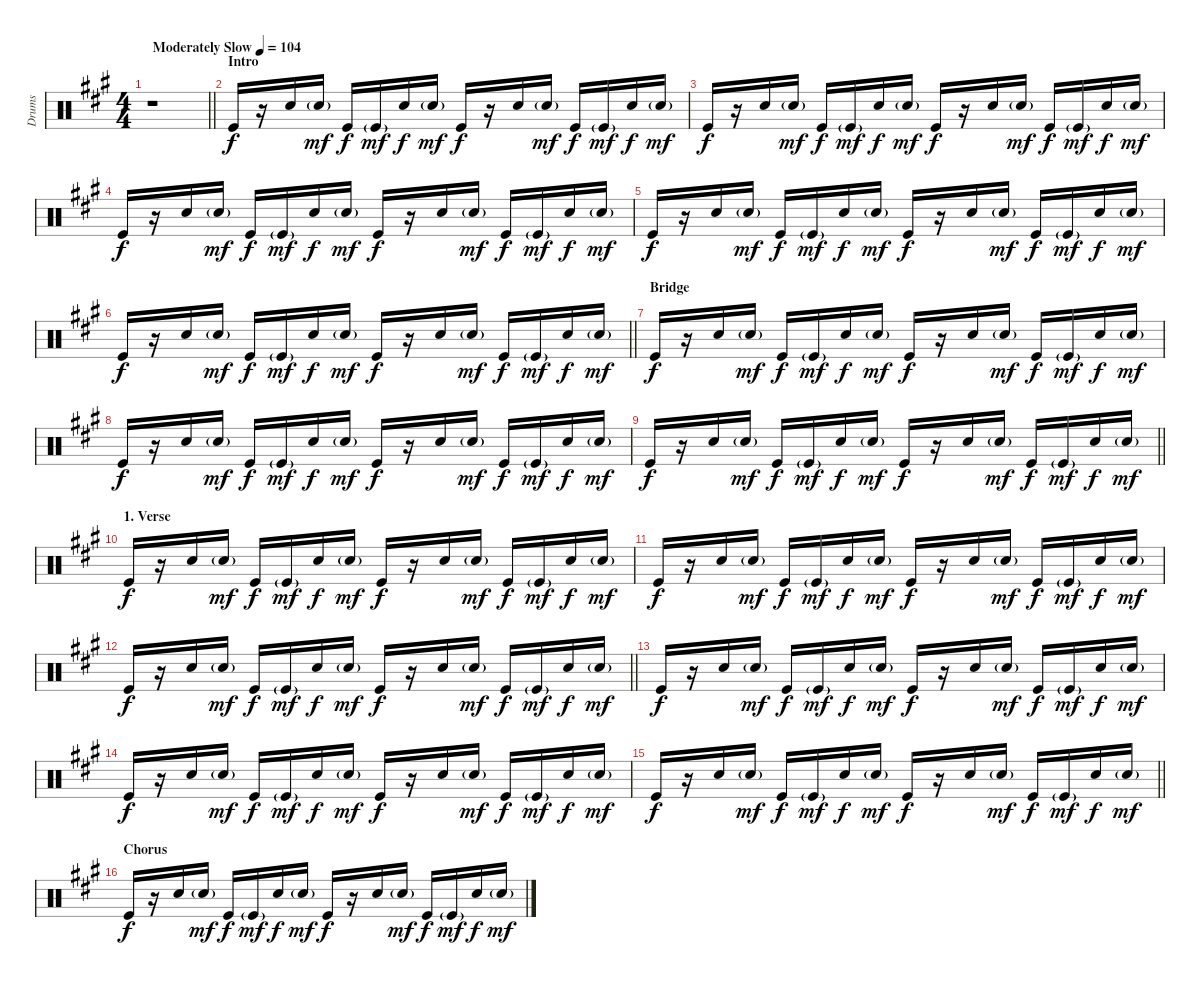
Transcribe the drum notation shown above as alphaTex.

\track ("Drums" "Drums") {mute instrument percussion}
\staff {score}
\articulation defaults
\ts (4 4)
\tempo (104 "Moderately Slow")
\clef neutral
\barLineRight lightlight
\ks a
r.1{dy f} |
\section ("" "Intro")
"Kick (hit)".16 r.16 "Snare (hit) 2".16 "Snare (hit) 2"{g}.16{dy mf} "Kick (hit)".16{dy f} "Kick (hit)"{g}.16{dy mf} "Snare (hit) 2".16{dy f} "Snare (hit) 2"{g}.16{dy mf} "Kick (hit)".16{dy f} r.16 "Snare (hit) 2".16 "Snare (hit) 2"{g}.16{dy mf} "Kick (hit)".16{dy f} "Kick (hit)"{g}.16{dy mf} "Snare (hit) 2".16{dy f} "Snare (hit) 2"{g}.16{dy mf} |
"Kick (hit)".16{dy f} r.16 "Snare (hit) 2".16 "Snare (hit) 2"{g}.16{dy mf} "Kick (hit)".16{dy f} "Kick (hit)"{g}.16{dy mf} "Snare (hit) 2".16{dy f} "Snare (hit) 2"{g}.16{dy mf} "Kick (hit)".16{dy f} r.16 "Snare (hit) 2".16 "Snare (hit) 2"{g}.16{dy mf} "Kick (hit)".16{dy f} "Kick (hit)"{g}.16{dy mf} "Snare (hit) 2".16{dy f} "Snare (hit) 2"{g}.16{dy mf} |
"Kick (hit)".16{dy f} r.16 "Snare (hit) 2".16 "Snare (hit) 2"{g}.16{dy mf} "Kick (hit)".16{dy f} "Kick (hit)"{g}.16{dy mf} "Snare (hit) 2".16{dy f} "Snare (hit) 2"{g}.16{dy mf} "Kick (hit)".16{dy f} r.16 "Snare (hit) 2".16 "Snare (hit) 2"{g}.16{dy mf} "Kick (hit)".16{dy f} "Kick (hit)"{g}.16{dy mf} "Snare (hit) 2".16{dy f} "Snare (hit) 2"{g}.16{dy mf} |
"Kick (hit)".16{dy f} r.16 "Snare (hit) 2".16 "Snare (hit) 2"{g}.16{dy mf} "Kick (hit)".16{dy f} "Kick (hit)"{g}.16{dy mf} "Snare (hit) 2".16{dy f} "Snare (hit) 2"{g}.16{dy mf} "Kick (hit)".16{dy f} r.16 "Snare (hit) 2".16 "Snare (hit) 2"{g}.16{dy mf} "Kick (hit)".16{dy f} "Kick (hit)"{g}.16{dy mf} "Snare (hit) 2".16{dy f} "Snare (hit) 2"{g}.16{dy mf} |
\barLineRight lightlight "Kick (hit)".16{dy f}
r.16 "Snare (hit) 2".16 "Snare (hit) 2"{g}.16{dy mf} "Kick (hit)".16{dy f} "Kick (hit)"{g}.16{dy mf} "Snare (hit) 2".16{dy f} "Snare (hit) 2"{g}.16{dy mf} "Kick (hit)".16{dy f} r.16 "Snare (hit) 2".16 "Snare (hit) 2"{g}.16{dy mf} "Kick (hit)".16{dy f} "Kick (hit)"{g}.16{dy mf} "Snare (hit) 2".16{dy f} "Snare (hit) 2"{g}.16{dy mf} |
\section ("" "Bridge")
"Kick (hit)".16{dy f} r.16 "Snare (hit) 2".16 "Snare (hit) 2"{g}.16{dy mf} "Kick (hit)".16{dy f} "Kick (hit)"{g}.16{dy mf} "Snare (hit) 2".16{dy f} "Snare (hit) 2"{g}.16{dy mf} "Kick (hit)".16{dy f} r.16 "Snare (hit) 2".16 "Snare (hit) 2"{g}.16{dy mf} "Kick (hit)".16{dy f} "Kick (hit)"{g}.16{dy mf} "Snare (hit) 2".16{dy f} "Snare (hit) 2"{g}.16{dy mf} |
"Kick (hit)".16{dy f} r.16 "Snare (hit) 2".16 "Snare (hit) 2"{g}.16{dy mf} "Kick (hit)".16{dy f} "Kick (hit)"{g}.16{dy mf} "Snare (hit) 2".16{dy f} "Snare (hit) 2"{g}.16{dy mf} "Kick (hit)".16{dy f} r.16 "Snare (hit) 2".16 "Snare (hit) 2"{g}.16{dy mf} "Kick (hit)".16{dy f} "Kick (hit)"{g}.16{dy mf} "Snare (hit) 2".16{dy f} "Snare (hit) 2"{g}.16{dy mf} |
\barLineRight lightlight "Kick (hit)".16{dy f}
r.16 "Snare (hit) 2".16 "Snare (hit) 2"{g}.16{dy mf} "Kick (hit)".16{dy f} "Kick (hit)"{g}.16{dy mf} "Snare (hit) 2".16{dy f} "Snare (hit) 2"{g}.16{dy mf} "Kick (hit)".16{dy f} r.16 "Snare (hit) 2".16 "Snare (hit) 2"{g}.16{dy mf} "Kick (hit)".16{dy f} "Kick (hit)"{g}.16{dy mf} "Snare (hit) 2".16{dy f} "Snare (hit) 2"{g}.16{dy mf} |
\section ("" "1. Verse")
"Kick (hit)".16{dy f} r.16 "Snare (hit) 2".16 "Snare (hit) 2"{g}.16{dy mf} "Kick (hit)".16{dy f} "Kick (hit)"{g}.16{dy mf} "Snare (hit) 2".16{dy f} "Snare (hit) 2"{g}.16{dy mf} "Kick (hit)".16{dy f} r.16 "Snare (hit) 2".16 "Snare (hit) 2"{g}.16{dy mf} "Kick (hit)".16{dy f} "Kick (hit)"{g}.16{dy mf} "Snare (hit) 2".16{dy f} "Snare (hit) 2"{g}.16{dy mf} |
"Kick (hit)".16{dy f} r.16 "Snare (hit) 2".16 "Snare (hit) 2"{g}.16{dy mf} "Kick (hit)".16{dy f} "Kick (hit)"{g}.16{dy mf} "Snare (hit) 2".16{dy f} "Snare (hit) 2"{g}.16{dy mf} "Kick (hit)".16{dy f} r.16 "Snare (hit) 2".16 "Snare (hit) 2"{g}.16{dy mf} "Kick (hit)".16{dy f} "Kick (hit)"{g}.16{dy mf} "Snare (hit) 2".16{dy f} "Snare (hit) 2"{g}.16{dy mf} |
\barLineRight lightlight "Kick (hit)".16{dy f}
r.16 "Snare (hit) 2".16 "Snare (hit) 2"{g}.16{dy mf} "Kick (hit)".16{dy f} "Kick (hit)"{g}.16{dy mf} "Snare (hit) 2".16{dy f} "Snare (hit) 2"{g}.16{dy mf} "Kick (hit)".16{dy f} r.16 "Snare (hit) 2".16 "Snare (hit) 2"{g}.16{dy mf} "Kick (hit)".16{dy f} "Kick (hit)"{g}.16{dy mf} "Snare (hit) 2".16{dy f} "Snare (hit) 2"{g}.16{dy mf} |
"Kick (hit)".16{dy f} r.16 "Snare (hit) 2".16 "Snare (hit) 2"{g}.16{dy mf} "Kick (hit)".16{dy f} "Kick (hit)"{g}.16{dy mf} "Snare (hit) 2".16{dy f} "Snare (hit) 2"{g}.16{dy mf} "Kick (hit)".16{dy f} r.16 "Snare (hit) 2".16 "Snare (hit) 2"{g}.16{dy mf} "Kick (hit)".16{dy f} "Kick (hit)"{g}.16{dy mf} "Snare (hit) 2".16{dy f} "Snare (hit) 2"{g}.16{dy mf} |
"Kick (hit)".16{dy f} r.16 "Snare (hit) 2".16 "Snare (hit) 2"{g}.16{dy mf} "Kick (hit)".16{dy f} "Kick (hit)"{g}.16{dy mf} "Snare (hit) 2".16{dy f} "Snare (hit) 2"{g}.16{dy mf} "Kick (hit)".16{dy f} r.16 "Snare (hit) 2".16 "Snare (hit) 2"{g}.16{dy mf} "Kick (hit)".16{dy f} "Kick (hit)"{g}.16{dy mf} "Snare (hit) 2".16{dy f} "Snare (hit) 2"{g}.16{dy mf} |
\barLineRight lightlight "Kick (hit)".16{dy f}
r.16 "Snare (hit) 2".16 "Snare (hit) 2"{g}.16{dy mf} "Kick (hit)".16{dy f} "Kick (hit)"{g}.16{dy mf} "Snare (hit) 2".16{dy f} "Snare (hit) 2"{g}.16{dy mf} "Kick (hit)".16{dy f} r.16 "Snare (hit) 2".16 "Snare (hit) 2"{g}.16{dy mf} "Kick (hit)".16{dy f} "Kick (hit)"{g}.16{dy mf} "Snare (hit) 2".16{dy f} "Snare (hit) 2"{g}.16{dy mf} |
\section ("" "Chorus")
"Kick (hit)".16{dy f} r.16 "Snare (hit) 2".16 "Snare (hit) 2"{g}.16{dy mf} "Kick (hit)".16{dy f} "Kick (hit)"{g}.16{dy mf} "Snare (hit) 2".16{dy f} "Snare (hit) 2"{g}.16{dy mf} "Kick (hit)".16{dy f} r.16 "Snare (hit) 2".16 "Snare (hit) 2"{g}.16{dy mf} "Kick (hit)".16{dy f} "Kick (hit)"{g}.16{dy mf} "Snare (hit) 2".16{dy f} "Snare (hit) 2"{g}.16{dy mf}
